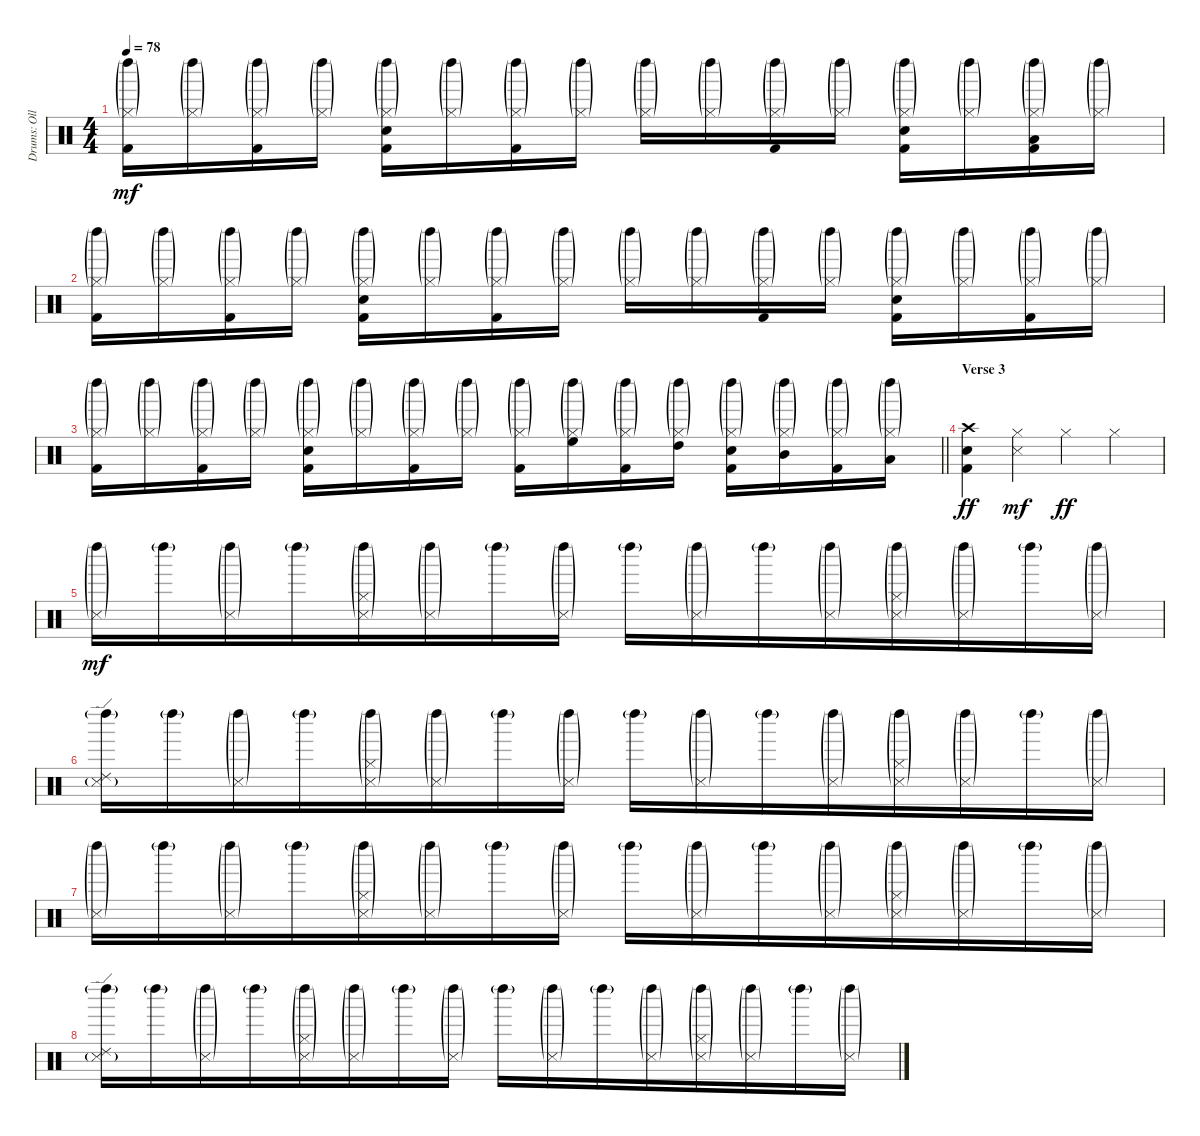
\track ("Drums: Olle Romeo" "Drums: Oll") {instrument percussion}
\staff {score}
\articulation defaults
\ts (4 4)
\tempo 78
\clef neutral
\ks c
("Hi-Hat (closed)"{g} "Kick (hit) 2" "Left Maraca (hit)"{g}).16{dy mf} ("Hi-Hat (closed)"{g} "Left Maraca (hit)"{g}).16 ("Hi-Hat (closed)"{g} "Kick (hit) 2" "Left Maraca (hit)"{g}).16 ("Hi-Hat (closed)"{g} "Left Maraca (hit)"{g}).16 ("Hi-Hat (closed)"{g} "Snare (hit) 2" "Kick (hit) 2" "Left Maraca (hit)"{g}).16 ("Hi-Hat (closed)"{g} "Left Maraca (hit)"{g}).16 ("Hi-Hat (closed)"{g} "Kick (hit) 2" "Left Maraca (hit)"{g}).16 ("Hi-Hat (closed)"{g} "Left Maraca (hit)"{g}).16 ("Hi-Hat (closed)"{g} "Left Maraca (hit)"{g}).16 ("Hi-Hat (closed)"{g} "Left Maraca (hit)"{g}).16 ("Hi-Hat (closed)"{g} "Kick (hit) 2" "Left Maraca (hit)"{g}).16 ("Hi-Hat (closed)"{g} "Left Maraca (hit)"{g}).16 ("Hi-Hat (closed)"{g} "Snare (hit) 2" "Kick (hit) 2" "Left Maraca (hit)"{g}).16 ("Hi-Hat (closed)"{g} "Left Maraca (hit)"{g}).16 ("Hi-Hat (closed)"{g} "Low Floor Tom (hit)" "Kick (hit) 2" "Left Maraca (hit)"{g}).16 ("Hi-Hat (closed)"{g} "Left Maraca (hit)"{g}).16 |
("Hi-Hat (closed)"{g} "Kick (hit) 2" "Left Maraca (hit)"{g}).16 ("Hi-Hat (closed)"{g} "Left Maraca (hit)"{g}).16 ("Hi-Hat (closed)"{g} "Kick (hit) 2" "Left Maraca (hit)"{g}).16 ("Hi-Hat (closed)"{g} "Left Maraca (hit)"{g}).16 ("Hi-Hat (closed)"{g} "Snare (hit) 2" "Kick (hit) 2" "Left Maraca (hit)"{g}).16 ("Hi-Hat (closed)"{g} "Left Maraca (hit)"{g}).16 ("Hi-Hat (closed)"{g} "Kick (hit) 2" "Left Maraca (hit)"{g}).16 ("Hi-Hat (closed)"{g} "Left Maraca (hit)"{g}).16 ("Hi-Hat (closed)"{g} "Left Maraca (hit)"{g}).16 ("Hi-Hat (closed)"{g} "Left Maraca (hit)"{g}).16 ("Hi-Hat (closed)"{g} "Kick (hit) 2" "Left Maraca (hit)"{g}).16 ("Hi-Hat (closed)"{g} "Left Maraca (hit)"{g}).16 ("Hi-Hat (closed)"{g} "Snare (hit) 2" "Kick (hit) 2" "Left Maraca (hit)"{g}).16 ("Hi-Hat (closed)"{g} "Left Maraca (hit)"{g}).16 ("Hi-Hat (closed)"{g} "Kick (hit) 2" "Left Maraca (hit)"{g}).16 ("Hi-Hat (closed)"{g} "Left Maraca (hit)"{g}).16 |
\barLineRight lightlight
("Hi-Hat (closed)"{g} "Kick (hit) 2" "Left Maraca (hit)"{g}).16 ("Hi-Hat (closed)"{g} "Left Maraca (hit)"{g}).16 ("Hi-Hat (closed)"{g} "Kick (hit) 2" "Left Maraca (hit)"{g}).16 ("Hi-Hat (closed)"{g} "Left Maraca (hit)"{g}).16 ("Hi-Hat (closed)"{g} "Snare (hit) 2" "Kick (hit) 2" "Left Maraca (hit)"{g}).16 ("Hi-Hat (closed)"{g} "Left Maraca (hit)"{g}).16 ("Hi-Hat (closed)"{g} "Kick (hit) 2" "Left Maraca (hit)"{g}).16 ("Hi-Hat (closed)"{g} "Left Maraca (hit)"{g}).16 ("Hi-Hat (closed)"{g} "Kick (hit) 2" "Left Maraca (hit)"{g}).16 ("Hi-Hat (closed)"{g} "High Floor Tom (hit)" "Left Maraca (hit)"{g}).16 ("Hi-Hat (closed)"{g} "Kick (hit) 2" "Left Maraca (hit)"{g}).16 ("Hi-Hat (closed)"{g} "High Tom (hit)" "Left Maraca (hit)"{g}).16 ("Hi-Hat (closed)"{g} "Snare (hit) 2" "Kick (hit) 2" "Left Maraca (hit)"{g}).16 ("Hi-Hat (closed)"{g} "Mid Tom (hit)" "Left Maraca (hit)"{g}).16 ("Hi-Hat (closed)"{g} "Kick (hit) 2" "Left Maraca (hit)"{g}).16 ("Hi-Hat (closed)"{g} "Low Tom (hit)" "Left Maraca (hit)"{g}).16 |
\section ("" "Verse 3")
("Crash high (hit)" "Snare (hit) 2" "Kick (hit) 2").4{dy ff} ("Hi-Hat (closed)" "Snare (side stick) 3").4{dy mf} "Hi-Hat (closed)".4{dy ff} "Hi-Hat (closed)".4 |
("Snare (side stick) 3"{g} "Left Maraca (hit)"{g}).16{dy mf} "Left Maraca (hit)"{g}.16 ("Snare (side stick) 3"{g} "Left Maraca (hit)"{g}).16 "Left Maraca (hit)"{g}.16{beam merge} ("Hi-Hat (closed)"{g} "Left Maraca (hit)"{g} "Snare (side stick) 3"{g}).16 ("Snare (side stick) 3"{g} "Left Maraca (hit)"{g}).16 "Left Maraca (hit)"{g}.16 ("Snare (side stick) 3"{g} "Left Maraca (hit)"{g}).16 "Left Maraca (hit)"{g}.16 ("Snare (side stick) 3"{g} "Left Maraca (hit)"{g}).16 "Left Maraca (hit)"{g}.16 ("Snare (side stick) 3"{g} "Left Maraca (hit)"{g}).16{beam merge} ("Hi-Hat (closed)"{g} "Left Maraca (hit)"{g} "Snare (side stick) 3"{g}).16 ("Snare (side stick) 3"{g} "Left Maraca (hit)"{g}).16 "Left Maraca (hit)"{g}.16 ("Snare (side stick) 3"{g} "Left Maraca (hit)"{g}).16 |
("Ride (edge) 2" "Snare (side stick) 3"{g} "Left Maraca (hit)"{g}).16 "Left Maraca (hit)"{g}.16 ("Snare (side stick) 3"{g} "Left Maraca (hit)"{g}).16 "Left Maraca (hit)"{g}.16{beam merge} ("Hi-Hat (closed)"{g} "Left Maraca (hit)"{g} "Snare (side stick) 3"{g}).16 ("Snare (side stick) 3"{g} "Left Maraca (hit)"{g}).16 "Left Maraca (hit)"{g}.16 ("Snare (side stick) 3"{g} "Left Maraca (hit)"{g}).16 "Left Maraca (hit)"{g}.16 ("Snare (side stick) 3"{g} "Left Maraca (hit)"{g}).16 "Left Maraca (hit)"{g}.16 ("Snare (side stick) 3"{g} "Left Maraca (hit)"{g}).16{beam merge} ("Hi-Hat (closed)"{g} "Left Maraca (hit)"{g} "Snare (side stick) 3"{g}).16 ("Snare (side stick) 3"{g} "Left Maraca (hit)"{g}).16 "Left Maraca (hit)"{g}.16 ("Snare (side stick) 3"{g} "Left Maraca (hit)"{g}).16 |
("Snare (side stick) 3"{g} "Left Maraca (hit)"{g}).16 "Left Maraca (hit)"{g}.16 ("Snare (side stick) 3"{g} "Left Maraca (hit)"{g}).16 "Left Maraca (hit)"{g}.16{beam merge} ("Hi-Hat (closed)"{g} "Left Maraca (hit)"{g} "Snare (side stick) 3"{g}).16 ("Snare (side stick) 3"{g} "Left Maraca (hit)"{g}).16 "Left Maraca (hit)"{g}.16 ("Snare (side stick) 3"{g} "Left Maraca (hit)"{g}).16 "Left Maraca (hit)"{g}.16 ("Snare (side stick) 3"{g} "Left Maraca (hit)"{g}).16 "Left Maraca (hit)"{g}.16 ("Snare (side stick) 3"{g} "Left Maraca (hit)"{g}).16{beam merge} ("Hi-Hat (closed)"{g} "Left Maraca (hit)"{g} "Snare (side stick) 3"{g}).16 ("Snare (side stick) 3"{g} "Left Maraca (hit)"{g}).16 "Left Maraca (hit)"{g}.16 ("Snare (side stick) 3"{g} "Left Maraca (hit)"{g}).16 |
("Ride (edge) 2" "Snare (side stick) 3"{g} "Left Maraca (hit)"{g}).16 "Left Maraca (hit)"{g}.16 ("Snare (side stick) 3"{g} "Left Maraca (hit)"{g}).16 "Left Maraca (hit)"{g}.16{beam merge} ("Hi-Hat (closed)"{g} "Left Maraca (hit)"{g} "Snare (side stick) 3"{g}).16 ("Snare (side stick) 3"{g} "Left Maraca (hit)"{g}).16 "Left Maraca (hit)"{g}.16 ("Snare (side stick) 3"{g} "Left Maraca (hit)"{g}).16 "Left Maraca (hit)"{g}.16 ("Snare (side stick) 3"{g} "Left Maraca (hit)"{g}).16 "Left Maraca (hit)"{g}.16 ("Snare (side stick) 3"{g} "Left Maraca (hit)"{g}).16{beam merge} ("Hi-Hat (closed)"{g} "Left Maraca (hit)"{g} "Snare (side stick) 3"{g}).16 ("Snare (side stick) 3"{g} "Left Maraca (hit)"{g}).16 "Left Maraca (hit)"{g}.16 ("Snare (side stick) 3"{g} "Left Maraca (hit)"{g}).16
